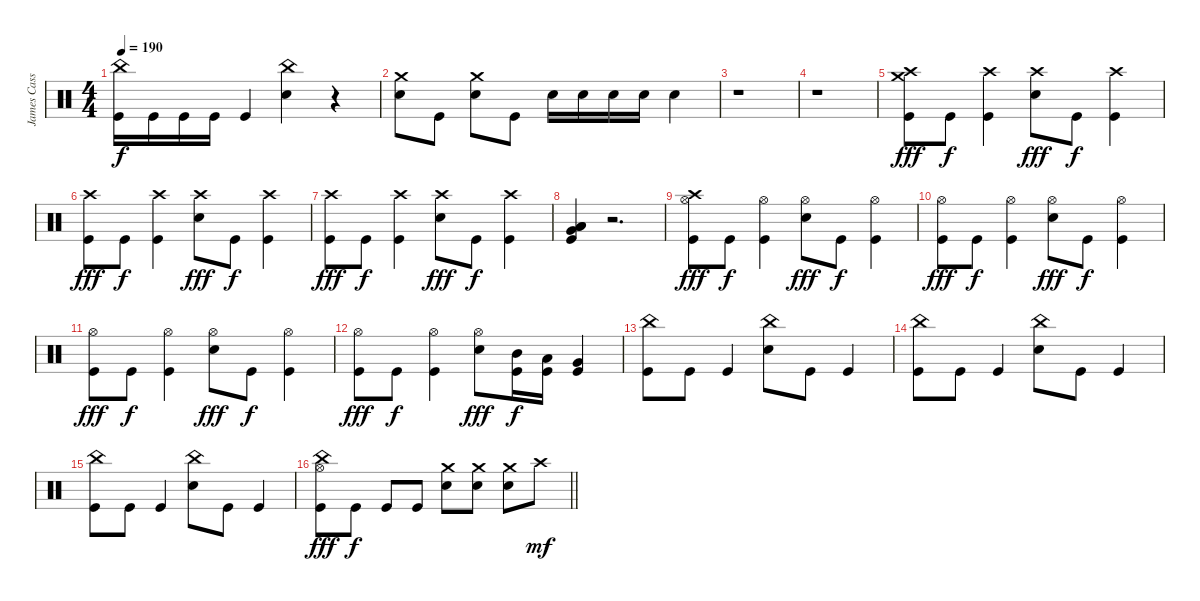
\track ("James Cassells" "James Cass") {instrument percussion}
\staff {score}
\articulation defaults
\ts (4 4)
\tempo 190
\clef neutral
\ks c
("China (hit)" "Kick (hit)").16{dy f} "Kick (hit)".16 "Kick (hit)".16 "Kick (hit)".16 "Kick (hit)".4 ("China (hit)" "Snare (hit) 2").4 r.4 |
("Crash medium (hit)" "Snare (hit) 2").8 "Kick (hit)".8 ("Crash medium (hit)" "Snare (hit) 2").8 "Kick (hit)".8 "Snare (hit) 2".16 "Snare (hit) 2".16 "Snare (hit) 2".16 "Snare (hit) 2".16 "Snare (hit) 2".4 |
r.1 |
r.1 |
("Crash high (hit)" "Crash medium (hit)" "Kick (hit)").8{dy fff} "Kick (hit)".8{dy f} ("Crash high (hit)" "Kick (hit)").4 ("Crash high (hit)" "Snare (hit) 2").8{dy fff} "Kick (hit)".8{dy f} ("Crash high (hit)" "Kick (hit)").4 |
("Crash high (hit)" "Kick (hit)").8{dy fff} "Kick (hit)".8{dy f} ("Crash high (hit)" "Kick (hit)").4 ("Crash high (hit)" "Snare (hit) 2").8{dy fff} "Kick (hit)".8{dy f} ("Crash high (hit)" "Kick (hit)").4 |
("Crash high (hit)" "Kick (hit)").8{dy fff} "Kick (hit)".8{dy f} ("Crash high (hit)" "Kick (hit)").4 ("Crash high (hit)" "Snare (hit) 2").8{dy fff} "Kick (hit)".8{dy f} ("Crash high (hit)" "Kick (hit)").4 |
("Low Tom (hit)" "Very Low Tom (hit)" "Low Floor Tom (hit)" "Kick (hit)").4 r.2{d} |
("Crash high (hit)" "Hi-Hat (open)" "Kick (hit)").8{dy fff} "Kick (hit)".8{dy f} ("Hi-Hat (open)" "Kick (hit)").4 ("Hi-Hat (open)" "Snare (hit) 2").8{dy fff} "Kick (hit)".8{dy f} ("Hi-Hat (open)" "Kick (hit)").4 |
("Hi-Hat (open)" "Kick (hit)").8{dy fff} "Kick (hit)".8{dy f} ("Hi-Hat (open)" "Kick (hit)").4 ("Hi-Hat (open)" "Snare (hit) 2").8{dy fff} "Kick (hit)".8{dy f} ("Hi-Hat (open)" "Kick (hit)").4 |
("Hi-Hat (open)" "Kick (hit)").8{dy fff} "Kick (hit)".8{dy f} ("Hi-Hat (open)" "Kick (hit)").4 ("Hi-Hat (open)" "Snare (hit) 2").8{dy fff} "Kick (hit)".8{dy f} ("Hi-Hat (open)" "Kick (hit)").4 |
("Hi-Hat (open)" "Kick (hit)").8{dy fff} "Kick (hit)".8{dy f} ("Hi-Hat (open)" "Kick (hit)").4 ("Hi-Hat (open)" "Snare (hit) 2").8{dy fff} ("Mid Tom (hit)" "Kick (hit)").16{dy f} ("Low Tom (hit)" "Kick (hit)").16 ("Very Low Tom (hit)" "Kick (hit)").4 |
("China (hit)" "Kick (hit)").8 "Kick (hit)".8 "Kick (hit)".4 ("China (hit)" "Snare (hit) 2").8 "Kick (hit)".8 "Kick (hit)".4 |
("China (hit)" "Kick (hit)").8 "Kick (hit)".8 "Kick (hit)".4 ("China (hit)" "Snare (hit) 2").8 "Kick (hit)".8 "Kick (hit)".4 |
("China (hit)" "Kick (hit)").8 "Kick (hit)".8 "Kick (hit)".4 ("China (hit)" "Snare (hit) 2").8 "Kick (hit)".8 "Kick (hit)".4 |
\barLineRight lightlight
("China (hit)" "Hi-Hat (open)" "Kick (hit)").8{dy fff} "Kick (hit)".8{dy f} "Kick (hit)".8 "Kick (hit)".8 ("Crash medium (hit)" "Snare (hit) 2").8 ("Crash medium (hit)" "Snare (hit) 2").8 ("Crash medium (hit)" "Snare (hit) 2").8 "Crash high (hit)".8{dy mf}
